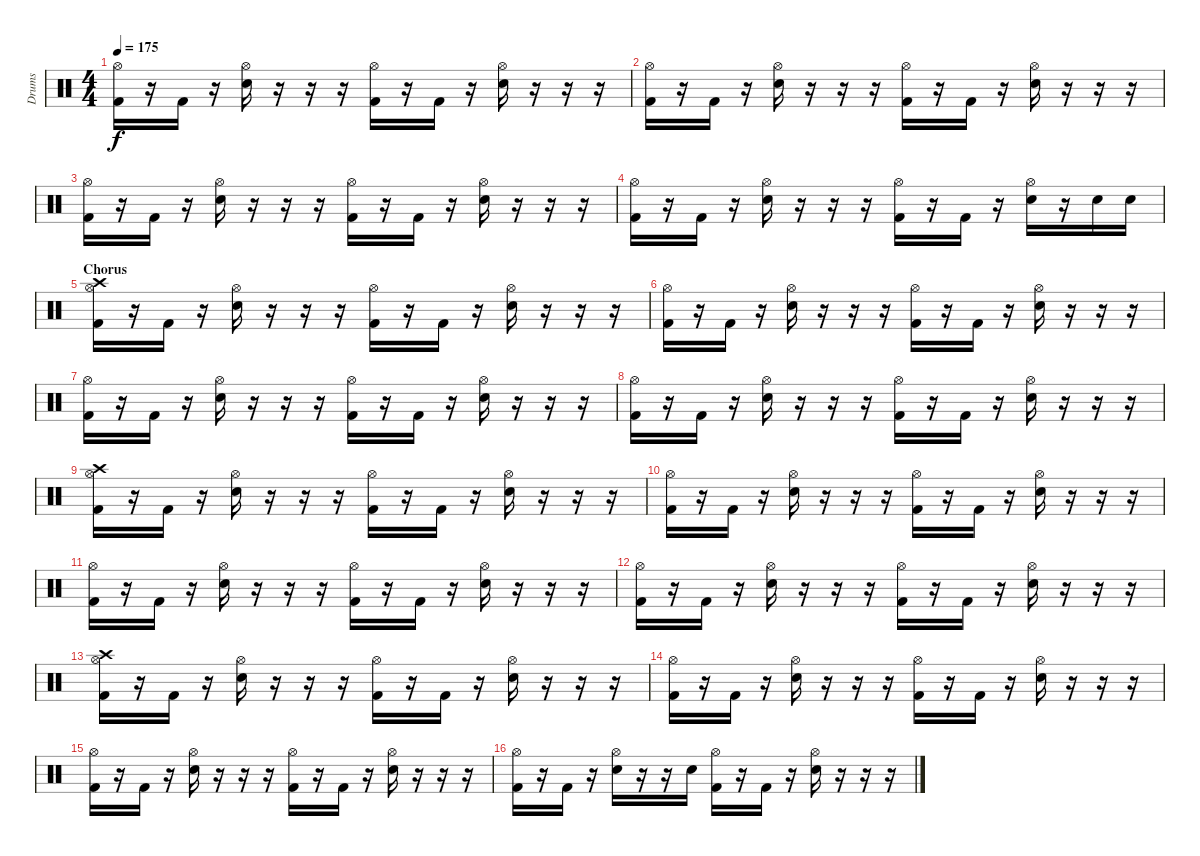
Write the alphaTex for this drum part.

\track ("Drums" "Drums") {instrument percussion}
\staff {score}
\articulation defaults
\ts (4 4)
\tempo 175
\clef neutral
\ks c
("Hi-Hat (open)" "Kick (hit) 2").16{dy f} r.16 "Kick (hit) 2".16 r.16 ("Hi-Hat (open)" "Snare (hit) 2").16 r.16 r.16 r.16 ("Hi-Hat (open)" "Kick (hit) 2").16 r.16 "Kick (hit) 2".16 r.16 ("Hi-Hat (open)" "Snare (hit) 2").16 r.16 r.16 r.16 |
("Hi-Hat (open)" "Kick (hit) 2").16 r.16 "Kick (hit) 2".16 r.16 ("Hi-Hat (open)" "Snare (hit) 2").16 r.16 r.16 r.16 ("Hi-Hat (open)" "Kick (hit) 2").16 r.16 "Kick (hit) 2".16 r.16 ("Hi-Hat (open)" "Snare (hit) 2").16 r.16 r.16 r.16 |
("Hi-Hat (open)" "Kick (hit) 2").16 r.16 "Kick (hit) 2".16 r.16 ("Hi-Hat (open)" "Snare (hit) 2").16 r.16 r.16 r.16 ("Hi-Hat (open)" "Kick (hit) 2").16 r.16 "Kick (hit) 2".16 r.16 ("Hi-Hat (open)" "Snare (hit) 2").16 r.16 r.16 r.16 |
("Hi-Hat (open)" "Kick (hit) 2").16 r.16 "Kick (hit) 2".16 r.16 ("Hi-Hat (open)" "Snare (hit) 2").16 r.16 r.16 r.16 ("Hi-Hat (open)" "Kick (hit) 2").16 r.16 "Kick (hit) 2".16 r.16 ("Hi-Hat (open)" "Snare (hit) 2").16 r.16 "Snare (hit) 2".16 "Snare (hit) 2".16 |
\section ("" "Chorus")
("Crash high (hit)" "Hi-Hat (open)" "Kick (hit) 2").16 r.16 "Kick (hit) 2".16 r.16 ("Hi-Hat (open)" "Snare (hit) 2").16 r.16 r.16 r.16 ("Hi-Hat (open)" "Kick (hit) 2").16 r.16 "Kick (hit) 2".16 r.16 ("Hi-Hat (open)" "Snare (hit) 2").16 r.16 r.16 r.16 |
("Hi-Hat (open)" "Kick (hit) 2").16 r.16 "Kick (hit) 2".16 r.16 ("Hi-Hat (open)" "Snare (hit) 2").16 r.16 r.16 r.16 ("Hi-Hat (open)" "Kick (hit) 2").16 r.16 "Kick (hit) 2".16 r.16 ("Hi-Hat (open)" "Snare (hit) 2").16 r.16 r.16 r.16 |
("Hi-Hat (open)" "Kick (hit) 2").16 r.16 "Kick (hit) 2".16 r.16 ("Hi-Hat (open)" "Snare (hit) 2").16 r.16 r.16 r.16 ("Hi-Hat (open)" "Kick (hit) 2").16 r.16 "Kick (hit) 2".16 r.16 ("Hi-Hat (open)" "Snare (hit) 2").16 r.16 r.16 r.16 |
("Hi-Hat (open)" "Kick (hit) 2").16 r.16 "Kick (hit) 2".16 r.16 ("Hi-Hat (open)" "Snare (hit) 2").16 r.16 r.16 r.16 ("Hi-Hat (open)" "Kick (hit) 2").16 r.16 "Kick (hit) 2".16 r.16 ("Hi-Hat (open)" "Snare (hit) 2").16 r.16 r.16 r.16 |
("Crash high (hit)" "Hi-Hat (open)" "Kick (hit) 2").16 r.16 "Kick (hit) 2".16 r.16 ("Hi-Hat (open)" "Snare (hit) 2").16 r.16 r.16 r.16 ("Hi-Hat (open)" "Kick (hit) 2").16 r.16 "Kick (hit) 2".16 r.16 ("Hi-Hat (open)" "Snare (hit) 2").16 r.16 r.16 r.16 |
("Hi-Hat (open)" "Kick (hit) 2").16 r.16 "Kick (hit) 2".16 r.16 ("Hi-Hat (open)" "Snare (hit) 2").16 r.16 r.16 r.16 ("Hi-Hat (open)" "Kick (hit) 2").16 r.16 "Kick (hit) 2".16 r.16 ("Hi-Hat (open)" "Snare (hit) 2").16 r.16 r.16 r.16 |
("Hi-Hat (open)" "Kick (hit) 2").16 r.16 "Kick (hit) 2".16 r.16 ("Hi-Hat (open)" "Snare (hit) 2").16 r.16 r.16 r.16 ("Hi-Hat (open)" "Kick (hit) 2").16 r.16 "Kick (hit) 2".16 r.16 ("Hi-Hat (open)" "Snare (hit) 2").16 r.16 r.16 r.16 |
("Hi-Hat (open)" "Kick (hit) 2").16 r.16 "Kick (hit) 2".16 r.16 ("Hi-Hat (open)" "Snare (hit) 2").16 r.16 r.16 r.16 ("Hi-Hat (open)" "Kick (hit) 2").16 r.16 "Kick (hit) 2".16 r.16 ("Hi-Hat (open)" "Snare (hit) 2").16 r.16 r.16 r.16 |
("Crash high (hit)" "Hi-Hat (open)" "Kick (hit) 2").16 r.16 "Kick (hit) 2".16 r.16 ("Hi-Hat (open)" "Snare (hit) 2").16 r.16 r.16 r.16 ("Hi-Hat (open)" "Kick (hit) 2").16 r.16 "Kick (hit) 2".16 r.16 ("Hi-Hat (open)" "Snare (hit) 2").16 r.16 r.16 r.16 |
("Hi-Hat (open)" "Kick (hit) 2").16 r.16 "Kick (hit) 2".16 r.16 ("Hi-Hat (open)" "Snare (hit) 2").16 r.16 r.16 r.16 ("Hi-Hat (open)" "Kick (hit) 2").16 r.16 "Kick (hit) 2".16 r.16 ("Hi-Hat (open)" "Snare (hit) 2").16 r.16 r.16 r.16 |
("Hi-Hat (open)" "Kick (hit) 2").16 r.16 "Kick (hit) 2".16 r.16 ("Hi-Hat (open)" "Snare (hit) 2").16 r.16 r.16 r.16 ("Hi-Hat (open)" "Kick (hit) 2").16 r.16 "Kick (hit) 2".16 r.16 ("Hi-Hat (open)" "Snare (hit) 2").16 r.16 r.16 r.16 |
("Hi-Hat (open)" "Kick (hit) 2").16 r.16 "Kick (hit) 2".16 r.16 ("Hi-Hat (open)" "Snare (hit) 2").16 r.16 r.16 "Snare (hit) 2".16 ("Hi-Hat (open)" "Kick (hit) 2").16 r.16 "Kick (hit) 2".16 r.16 ("Hi-Hat (open)" "Snare (hit) 2").16 r.16 r.16 r.16
